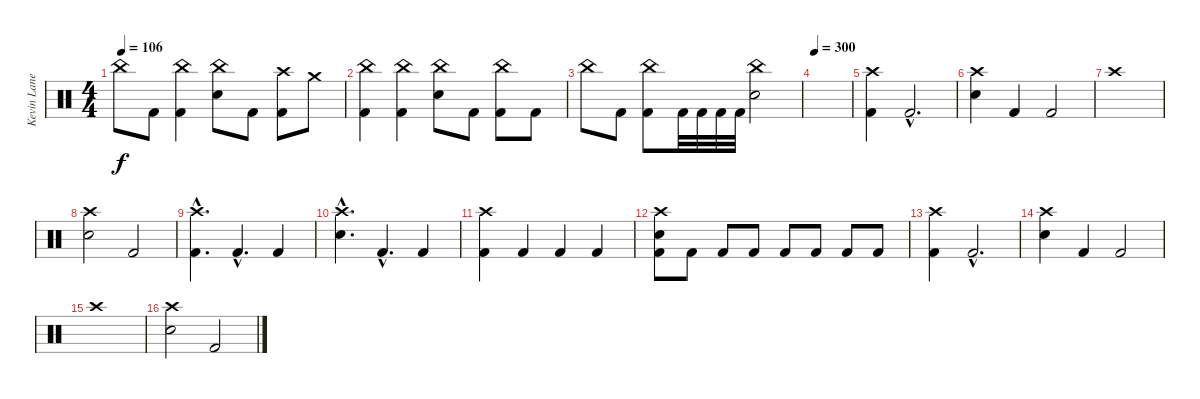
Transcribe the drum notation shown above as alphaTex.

\track ("Kevin Lane (Drums)" "Kevin Lane") {instrument percussion}
\staff {score}
\articulation defaults
\ts (4 4)
\tempo 106
\clef neutral
\ks c "China (hit)".8{dy f} "Kick (hit) 2".8
("China (hit)" "Kick (hit) 2").4 ("China (hit)" "Snare (hit) 2").8 "Kick (hit) 2".8 ("Crash high (hit)" "Kick (hit) 2").8 "Crash medium (hit)".8 |
("China (hit)" "Kick (hit) 2").4 ("China (hit)" "Kick (hit) 2").4 ("China (hit)" "Snare (hit) 2").8 "Kick (hit) 2".8 ("China (hit)" "Kick (hit) 2").8 "Kick (hit) 2".8 |
"China (hit)".8 "Kick (hit) 2".8 ("China (hit)" "Kick (hit) 2").8 "Kick (hit) 2".32 "Kick (hit) 2".32 "Kick (hit) 2".32 "Kick (hit) 2".32 ("China (hit)" "Snare (hit) 2").2 |
\tempo 300
|
("Crash high (hit)" "Kick (hit) 2").4 "Kick (hit) 2"{hac}.2{d} |
("Crash high (hit)" "Snare (hit) 2").4 "Kick (hit) 2".4 "Kick (hit) 2".2 |
"Crash high (hit)".1 |
("Crash high (hit)" "Snare (hit) 2").2 "Kick (hit) 2".2 |
("Crash high (hit)"{hac} "Kick (hit) 2"{hac}).4{d} "Kick (hit) 2"{hac}.4{d} "Kick (hit) 2".4 |
("Crash high (hit)"{hac} "Snare (hit) 2"{hac}).4{d} "Kick (hit) 2"{hac}.4{d} "Kick (hit) 2".4 |
("Crash high (hit)" "Kick (hit) 2").4 "Kick (hit) 2".4 "Kick (hit) 2".4 "Kick (hit) 2".4 |
("Crash high (hit)" "Snare (hit) 2" "Kick (hit) 2").8 "Kick (hit) 2".8 "Kick (hit) 2".8 "Kick (hit) 2".8 "Kick (hit) 2".8 "Kick (hit) 2".8 "Kick (hit) 2".8 "Kick (hit) 2".8 |
("Crash high (hit)" "Kick (hit) 2").4 "Kick (hit) 2"{hac}.2{d} |
("Crash high (hit)" "Snare (hit) 2").4 "Kick (hit) 2".4 "Kick (hit) 2".2 |
"Crash high (hit)".1 |
("Crash high (hit)" "Snare (hit) 2").2 "Kick (hit) 2".2
